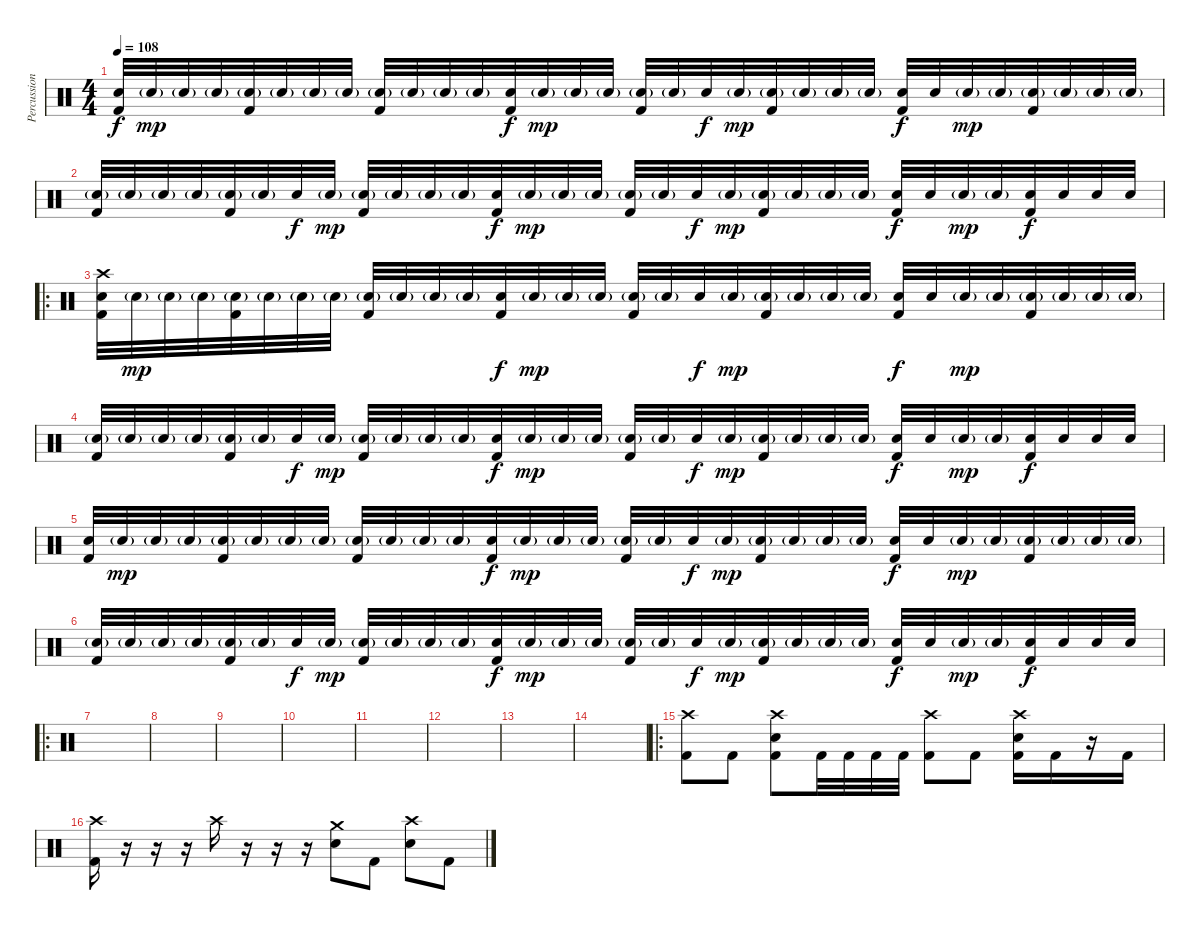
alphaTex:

\track ("Percussion" "Percussion") {instrument percussion}
\staff {score}
\articulation defaults
\ts (4 4)
\tempo 108
\clef neutral
\ks c
("Electric Snare (hit)" "Kick (hit) 2").32{dy f} "Electric Snare (hit)"{g}.32{dy mp} "Electric Snare (hit)"{g}.32 "Electric Snare (hit)"{g}.32 ("Electric Snare (hit)"{g} "Kick (hit) 2").32 "Electric Snare (hit)"{g}.32 "Electric Snare (hit)"{g}.32 "Electric Snare (hit)"{g}.32 ("Electric Snare (hit)"{g} "Kick (hit) 2").32 "Electric Snare (hit)"{g}.32 "Electric Snare (hit)"{g}.32 "Electric Snare (hit)"{g}.32 ("Electric Snare (hit)" "Kick (hit) 2").32{dy f} "Electric Snare (hit)"{g}.32{dy mp} "Electric Snare (hit)"{g}.32 "Electric Snare (hit)"{g}.32 ("Electric Snare (hit)"{g} "Kick (hit) 2").32 "Electric Snare (hit)"{g}.32 "Electric Snare (hit)".32{dy f} "Electric Snare (hit)"{g}.32{dy mp} ("Electric Snare (hit)"{g} "Kick (hit) 2").32 "Electric Snare (hit)"{g}.32 "Electric Snare (hit)"{g}.32 "Electric Snare (hit)"{g}.32 ("Electric Snare (hit)" "Kick (hit) 2").32{dy f} "Electric Snare (hit)".32 "Electric Snare (hit)"{g}.32{dy mp} "Electric Snare (hit)"{g}.32 ("Electric Snare (hit)"{g} "Kick (hit) 2").32 "Electric Snare (hit)"{g}.32 "Electric Snare (hit)"{g}.32 "Electric Snare (hit)"{g}.32 |
("Electric Snare (hit)"{g} "Kick (hit) 2").32 "Electric Snare (hit)"{g}.32 "Electric Snare (hit)"{g}.32 "Electric Snare (hit)"{g}.32 ("Electric Snare (hit)"{g} "Kick (hit) 2").32 "Electric Snare (hit)"{g}.32 "Electric Snare (hit)".32{dy f} "Electric Snare (hit)"{g}.32{dy mp} ("Electric Snare (hit)"{g} "Kick (hit) 2").32 "Electric Snare (hit)"{g}.32 "Electric Snare (hit)"{g}.32 "Electric Snare (hit)"{g}.32 ("Electric Snare (hit)" "Kick (hit) 2").32{dy f} "Electric Snare (hit)"{g}.32{dy mp} "Electric Snare (hit)"{g}.32 "Electric Snare (hit)"{g}.32 ("Electric Snare (hit)"{g} "Kick (hit) 2").32 "Electric Snare (hit)"{g}.32 "Electric Snare (hit)".32{dy f} "Electric Snare (hit)"{g}.32{dy mp} ("Electric Snare (hit)"{g} "Kick (hit) 2").32 "Electric Snare (hit)"{g}.32 "Electric Snare (hit)"{g}.32 "Electric Snare (hit)"{g}.32 ("Electric Snare (hit)" "Kick (hit) 2").32{dy f} "Electric Snare (hit)".32 "Electric Snare (hit)"{g}.32{dy mp} "Electric Snare (hit)"{g}.32 ("Electric Snare (hit)" "Kick (hit) 2").32{dy f} "Electric Snare (hit)".32 "Electric Snare (hit)".32 "Electric Snare (hit)".32 |
\ro
("Crash high (hit)" "Electric Snare (hit)" "Kick (hit) 2").32 "Electric Snare (hit)"{g}.32{dy mp} "Electric Snare (hit)"{g}.32 "Electric Snare (hit)"{g}.32 ("Electric Snare (hit)"{g} "Kick (hit) 2").32 "Electric Snare (hit)"{g}.32 "Electric Snare (hit)"{g}.32 "Electric Snare (hit)"{g}.32 ("Electric Snare (hit)"{g} "Kick (hit) 2").32 "Electric Snare (hit)"{g}.32 "Electric Snare (hit)"{g}.32 "Electric Snare (hit)"{g}.32 ("Electric Snare (hit)" "Kick (hit) 2").32{dy f} "Electric Snare (hit)"{g}.32{dy mp} "Electric Snare (hit)"{g}.32 "Electric Snare (hit)"{g}.32 ("Electric Snare (hit)"{g} "Kick (hit) 2").32 "Electric Snare (hit)"{g}.32 "Electric Snare (hit)".32{dy f} "Electric Snare (hit)"{g}.32{dy mp} ("Electric Snare (hit)"{g} "Kick (hit) 2").32 "Electric Snare (hit)"{g}.32 "Electric Snare (hit)"{g}.32 "Electric Snare (hit)"{g}.32 ("Electric Snare (hit)" "Kick (hit) 2").32{dy f} "Electric Snare (hit)".32 "Electric Snare (hit)"{g}.32{dy mp} "Electric Snare (hit)"{g}.32 ("Electric Snare (hit)"{g} "Kick (hit) 2").32 "Electric Snare (hit)"{g}.32 "Electric Snare (hit)"{g}.32 "Electric Snare (hit)"{g}.32 |
("Electric Snare (hit)"{g} "Kick (hit) 2").32 "Electric Snare (hit)"{g}.32 "Electric Snare (hit)"{g}.32 "Electric Snare (hit)"{g}.32 ("Electric Snare (hit)"{g} "Kick (hit) 2").32 "Electric Snare (hit)"{g}.32 "Electric Snare (hit)".32{dy f} "Electric Snare (hit)"{g}.32{dy mp} ("Electric Snare (hit)"{g} "Kick (hit) 2").32 "Electric Snare (hit)"{g}.32 "Electric Snare (hit)"{g}.32 "Electric Snare (hit)"{g}.32 ("Electric Snare (hit)" "Kick (hit) 2").32{dy f} "Electric Snare (hit)"{g}.32{dy mp} "Electric Snare (hit)"{g}.32 "Electric Snare (hit)"{g}.32 ("Electric Snare (hit)"{g} "Kick (hit) 2").32 "Electric Snare (hit)"{g}.32 "Electric Snare (hit)".32{dy f} "Electric Snare (hit)"{g}.32{dy mp} ("Electric Snare (hit)"{g} "Kick (hit) 2").32 "Electric Snare (hit)"{g}.32 "Electric Snare (hit)"{g}.32 "Electric Snare (hit)"{g}.32 ("Electric Snare (hit)" "Kick (hit) 2").32{dy f} "Electric Snare (hit)".32 "Electric Snare (hit)"{g}.32{dy mp} "Electric Snare (hit)"{g}.32 ("Electric Snare (hit)" "Kick (hit) 2").32{dy f} "Electric Snare (hit)".32 "Electric Snare (hit)".32 "Electric Snare (hit)".32 |
("Electric Snare (hit)" "Kick (hit) 2").32 "Electric Snare (hit)"{g}.32{dy mp} "Electric Snare (hit)"{g}.32 "Electric Snare (hit)"{g}.32 ("Electric Snare (hit)"{g} "Kick (hit) 2").32 "Electric Snare (hit)"{g}.32 "Electric Snare (hit)"{g}.32 "Electric Snare (hit)"{g}.32 ("Electric Snare (hit)"{g} "Kick (hit) 2").32 "Electric Snare (hit)"{g}.32 "Electric Snare (hit)"{g}.32 "Electric Snare (hit)"{g}.32 ("Electric Snare (hit)" "Kick (hit) 2").32{dy f} "Electric Snare (hit)"{g}.32{dy mp} "Electric Snare (hit)"{g}.32 "Electric Snare (hit)"{g}.32 ("Electric Snare (hit)"{g} "Kick (hit) 2").32 "Electric Snare (hit)"{g}.32 "Electric Snare (hit)".32{dy f} "Electric Snare (hit)"{g}.32{dy mp} ("Electric Snare (hit)"{g} "Kick (hit) 2").32 "Electric Snare (hit)"{g}.32 "Electric Snare (hit)"{g}.32 "Electric Snare (hit)"{g}.32 ("Electric Snare (hit)" "Kick (hit) 2").32{dy f} "Electric Snare (hit)".32 "Electric Snare (hit)"{g}.32{dy mp} "Electric Snare (hit)"{g}.32 ("Electric Snare (hit)"{g} "Kick (hit) 2").32 "Electric Snare (hit)"{g}.32 "Electric Snare (hit)"{g}.32 "Electric Snare (hit)"{g}.32 |
("Electric Snare (hit)"{g} "Kick (hit) 2").32 "Electric Snare (hit)"{g}.32 "Electric Snare (hit)"{g}.32 "Electric Snare (hit)"{g}.32 ("Electric Snare (hit)"{g} "Kick (hit) 2").32 "Electric Snare (hit)"{g}.32 "Electric Snare (hit)".32{dy f} "Electric Snare (hit)"{g}.32{dy mp} ("Electric Snare (hit)"{g} "Kick (hit) 2").32 "Electric Snare (hit)"{g}.32 "Electric Snare (hit)"{g}.32 "Electric Snare (hit)"{g}.32 ("Electric Snare (hit)" "Kick (hit) 2").32{dy f} "Electric Snare (hit)"{g}.32{dy mp} "Electric Snare (hit)"{g}.32 "Electric Snare (hit)"{g}.32 ("Electric Snare (hit)"{g} "Kick (hit) 2").32 "Electric Snare (hit)"{g}.32 "Electric Snare (hit)".32{dy f} "Electric Snare (hit)"{g}.32{dy mp} ("Electric Snare (hit)"{g} "Kick (hit) 2").32 "Electric Snare (hit)"{g}.32 "Electric Snare (hit)"{g}.32 "Electric Snare (hit)"{g}.32 ("Electric Snare (hit)" "Kick (hit) 2").32{dy f} "Electric Snare (hit)".32 "Electric Snare (hit)"{g}.32{dy mp} "Electric Snare (hit)"{g}.32 ("Electric Snare (hit)" "Kick (hit) 2").32{dy f} "Electric Snare (hit)".32 "Electric Snare (hit)".32 "Electric Snare (hit)".32 |
\ro
|
|
|
|
|
|
|
|
\ro
("Crash high (hit)" "Kick (hit) 2").8 "Kick (hit) 2".8 ("Crash high (hit)" "Electric Snare (hit)" "Kick (hit) 2").8 "Kick (hit) 2".32 "Kick (hit) 2".32 "Kick (hit) 2".32 "Kick (hit) 2".32 ("Crash high (hit)" "Kick (hit) 2").8 "Kick (hit) 2".8 ("Crash high (hit)" "Electric Snare (hit)" "Kick (hit) 2").16 "Kick (hit) 2".16 r.16 "Kick (hit) 2".16 |
("Crash high (hit)" "Kick (hit) 2").16 r.16 r.16 r.16 "Crash high (hit)".16 r.16 r.16 r.16 ("Crash medium (hit)" "Electric Snare (hit)").8 "Kick (hit) 2".8 ("Crash high (hit)" "Electric Snare (hit)").8 "Kick (hit) 2".8
